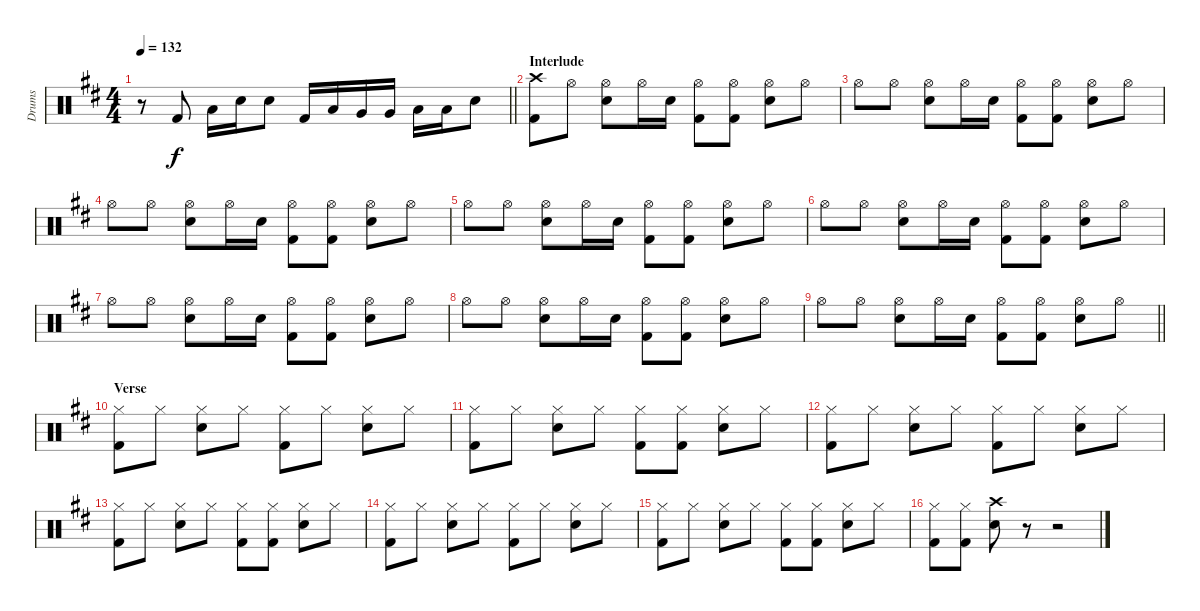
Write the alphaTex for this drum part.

\track ("Drums" "Drums") {instrument percussion}
\staff {score}
\articulation defaults
\ts (4 4)
\tempo 132
\clef neutral
\barLineRight lightlight
\ks d
r.8{dy f} "Kick (hit) 2".8 "Low Tom (hit)".16 "Electric Snare (hit)".16 "Electric Snare (hit)".8 "Kick (hit) 2".16 "Low Tom (hit)".16 "Very Low Tom (hit)".16 "Very Low Tom (hit)".16 "Low Tom (hit)".16 "Low Tom (hit)".16 "Electric Snare (hit)".8 |
\section ("" "Interlude")
("Crash high (hit)" "Kick (hit) 2").8 "Hi-Hat (open)".8 ("Hi-Hat (open)" "Electric Snare (hit)").8 "Hi-Hat (open)".16 "Electric Snare (hit)".16 ("Hi-Hat (open)" "Kick (hit) 2").8 ("Hi-Hat (open)" "Kick (hit) 2").8 ("Hi-Hat (open)" "Electric Snare (hit)").8 "Hi-Hat (open)".8 |
"Hi-Hat (open)".8 "Hi-Hat (open)".8 ("Hi-Hat (open)" "Electric Snare (hit)").8 "Hi-Hat (open)".16 "Electric Snare (hit)".16 ("Hi-Hat (open)" "Kick (hit) 2").8 ("Hi-Hat (open)" "Kick (hit) 2").8 ("Hi-Hat (open)" "Electric Snare (hit)").8 "Hi-Hat (open)".8 |
"Hi-Hat (open)".8 "Hi-Hat (open)".8 ("Hi-Hat (open)" "Electric Snare (hit)").8 "Hi-Hat (open)".16 "Electric Snare (hit)".16 ("Hi-Hat (open)" "Kick (hit) 2").8 ("Hi-Hat (open)" "Kick (hit) 2").8 ("Hi-Hat (open)" "Electric Snare (hit)").8 "Hi-Hat (open)".8 |
"Hi-Hat (open)".8 "Hi-Hat (open)".8 ("Hi-Hat (open)" "Electric Snare (hit)").8 "Hi-Hat (open)".16 "Electric Snare (hit)".16 ("Hi-Hat (open)" "Kick (hit) 2").8 ("Hi-Hat (open)" "Kick (hit) 2").8 ("Hi-Hat (open)" "Electric Snare (hit)").8 "Hi-Hat (open)".8 |
"Hi-Hat (open)".8 "Hi-Hat (open)".8 ("Hi-Hat (open)" "Electric Snare (hit)").8 "Hi-Hat (open)".16 "Electric Snare (hit)".16 ("Hi-Hat (open)" "Kick (hit) 2").8 ("Hi-Hat (open)" "Kick (hit) 2").8 ("Hi-Hat (open)" "Electric Snare (hit)").8 "Hi-Hat (open)".8 |
"Hi-Hat (open)".8 "Hi-Hat (open)".8 ("Hi-Hat (open)" "Electric Snare (hit)").8 "Hi-Hat (open)".16 "Electric Snare (hit)".16 ("Hi-Hat (open)" "Kick (hit) 2").8 ("Hi-Hat (open)" "Kick (hit) 2").8 ("Hi-Hat (open)" "Electric Snare (hit)").8 "Hi-Hat (open)".8 |
"Hi-Hat (open)".8 "Hi-Hat (open)".8 ("Hi-Hat (open)" "Electric Snare (hit)").8 "Hi-Hat (open)".16 "Electric Snare (hit)".16 ("Hi-Hat (open)" "Kick (hit) 2").8 ("Hi-Hat (open)" "Kick (hit) 2").8 ("Hi-Hat (open)" "Electric Snare (hit)").8 "Hi-Hat (open)".8 |
\barLineRight lightlight "Hi-Hat (open)".8 "Hi-Hat (open)".8
("Hi-Hat (open)" "Electric Snare (hit)").8 "Hi-Hat (open)".16 "Electric Snare (hit)".16 ("Hi-Hat (open)" "Kick (hit) 2").8 ("Hi-Hat (open)" "Kick (hit) 2").8 ("Hi-Hat (open)" "Electric Snare (hit)").8 "Hi-Hat (open)".8 |
\section ("" "Verse")
("Hi-Hat (closed)" "Kick (hit) 2").8 "Hi-Hat (closed)".8 ("Hi-Hat (closed)" "Electric Snare (hit)").8 "Hi-Hat (closed)".8 ("Hi-Hat (closed)" "Kick (hit) 2").8 "Hi-Hat (closed)".8 ("Hi-Hat (closed)" "Electric Snare (hit)").8 "Hi-Hat (closed)".8 |
("Hi-Hat (closed)" "Kick (hit) 2").8 "Hi-Hat (closed)".8 ("Hi-Hat (closed)" "Electric Snare (hit)").8 "Hi-Hat (closed)".8 ("Hi-Hat (closed)" "Kick (hit) 2").8 ("Hi-Hat (closed)" "Kick (hit) 2").8 ("Hi-Hat (closed)" "Electric Snare (hit)").8 "Hi-Hat (closed)".8 |
("Hi-Hat (closed)" "Kick (hit) 2").8 "Hi-Hat (closed)".8 ("Hi-Hat (closed)" "Electric Snare (hit)").8 "Hi-Hat (closed)".8 ("Hi-Hat (closed)" "Kick (hit) 2").8 "Hi-Hat (closed)".8 ("Hi-Hat (closed)" "Electric Snare (hit)").8 "Hi-Hat (closed)".8 |
("Hi-Hat (closed)" "Kick (hit) 2").8 "Hi-Hat (closed)".8 ("Hi-Hat (closed)" "Electric Snare (hit)").8 "Hi-Hat (closed)".8 ("Hi-Hat (closed)" "Kick (hit) 2").8 ("Hi-Hat (closed)" "Kick (hit) 2").8 ("Hi-Hat (closed)" "Electric Snare (hit)").8 "Hi-Hat (closed)".8 |
("Hi-Hat (closed)" "Kick (hit) 2").8 "Hi-Hat (closed)".8 ("Hi-Hat (closed)" "Electric Snare (hit)").8 "Hi-Hat (closed)".8 ("Hi-Hat (closed)" "Kick (hit) 2").8 "Hi-Hat (closed)".8 ("Hi-Hat (closed)" "Electric Snare (hit)").8 "Hi-Hat (closed)".8 |
("Hi-Hat (closed)" "Kick (hit) 2").8 "Hi-Hat (closed)".8 ("Hi-Hat (closed)" "Electric Snare (hit)").8 "Hi-Hat (closed)".8 ("Hi-Hat (closed)" "Kick (hit) 2").8 ("Hi-Hat (closed)" "Kick (hit) 2").8 ("Hi-Hat (closed)" "Electric Snare (hit)").8 "Hi-Hat (closed)".8 |
("Hi-Hat (closed)" "Kick (hit) 2").8 ("Hi-Hat (closed)" "Kick (hit) 2").8 ("Crash high (hit)" "Electric Snare (hit)").8 r.8 r.2
